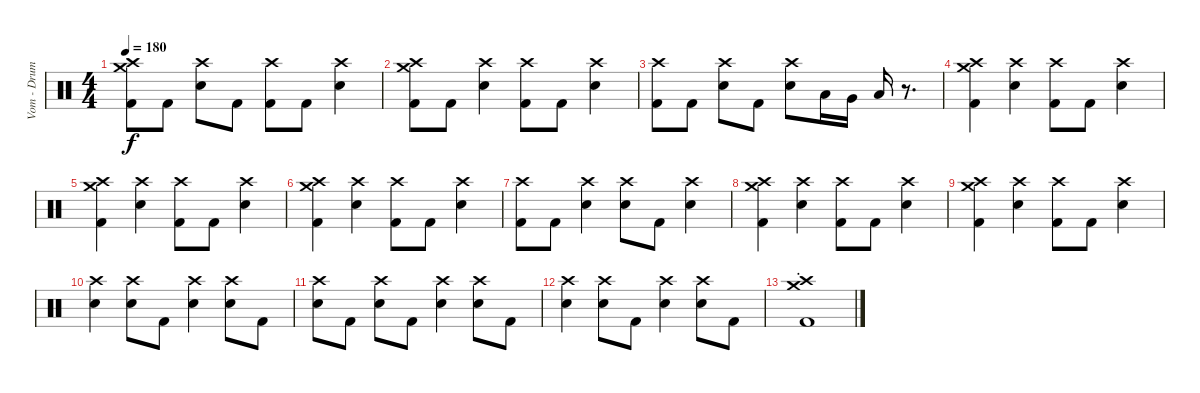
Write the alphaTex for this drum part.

\track ("Vom - Drums" "Vom - Drum") {instrument percussion}
\staff {score}
\articulation defaults
\ts (4 4)
\tempo 180
\clef neutral
\ks c
("Crash high (hit)" "Crash medium (hit)" "Kick (hit) 2").8{dy f} "Kick (hit) 2".8 ("Crash high (hit)" "Electric Snare (hit)").8 "Kick (hit) 2".8 ("Crash high (hit)" "Kick (hit) 2").8 "Kick (hit) 2".8 ("Crash high (hit)" "Electric Snare (hit)").4 |
("Crash high (hit)" "Crash medium (hit)" "Kick (hit) 2").8 "Kick (hit) 2".8 ("Crash high (hit)" "Electric Snare (hit)").4 ("Crash high (hit)" "Kick (hit) 2").8 "Kick (hit) 2".8 ("Crash high (hit)" "Electric Snare (hit)").4 |
("Crash high (hit)" "Kick (hit) 2").8 "Kick (hit) 2".8 ("Crash high (hit)" "Electric Snare (hit)").8 "Kick (hit) 2".8 ("Crash high (hit)" "Electric Snare (hit)").8 "Low Tom (hit)".16 "Very Low Tom (hit)".16 "Low Floor Tom (hit)".16 r.8{d} |
("Crash high (hit)" "Crash medium (hit)" "Kick (hit) 2").4 ("Crash high (hit)" "Electric Snare (hit)").4 ("Crash high (hit)" "Kick (hit) 2").8 "Kick (hit) 2".8 ("Crash high (hit)" "Electric Snare (hit)").4 |
("Crash high (hit)" "Crash medium (hit)" "Kick (hit) 2").4 ("Crash high (hit)" "Electric Snare (hit)").4 ("Crash high (hit)" "Kick (hit) 2").8 "Kick (hit) 2".8 ("Crash high (hit)" "Electric Snare (hit)").4 |
("Crash high (hit)" "Crash medium (hit)" "Kick (hit) 2").4 ("Crash high (hit)" "Electric Snare (hit)").4 ("Crash high (hit)" "Kick (hit) 2").8 "Kick (hit) 2".8 ("Crash high (hit)" "Electric Snare (hit)").4 |
("Crash high (hit)" "Kick (hit) 2").8 "Kick (hit) 2".8 ("Crash high (hit)" "Electric Snare (hit)").4 ("Crash high (hit)" "Electric Snare (hit)").8 "Kick (hit) 2".8 ("Crash high (hit)" "Electric Snare (hit)").4 |
("Crash high (hit)" "Crash medium (hit)" "Kick (hit) 2").4 ("Crash high (hit)" "Electric Snare (hit)").4 ("Crash high (hit)" "Kick (hit) 2").8 "Kick (hit) 2".8 ("Crash high (hit)" "Electric Snare (hit)").4 |
("Crash high (hit)" "Crash medium (hit)" "Kick (hit) 2").4 ("Crash high (hit)" "Electric Snare (hit)").4 ("Crash high (hit)" "Kick (hit) 2").8 "Kick (hit) 2".8 ("Crash high (hit)" "Electric Snare (hit)").4 |
("Crash high (hit)" "Electric Snare (hit)").4 ("Crash high (hit)" "Electric Snare (hit)").8 "Kick (hit) 2".8 ("Crash high (hit)" "Electric Snare (hit)").4 ("Crash high (hit)" "Electric Snare (hit)").8 "Kick (hit) 2".8 |
("Crash high (hit)" "Electric Snare (hit)").8 "Kick (hit) 2".8 ("Crash high (hit)" "Electric Snare (hit)").8 "Kick (hit) 2".8 ("Crash high (hit)" "Electric Snare (hit)").4 ("Crash high (hit)" "Electric Snare (hit)").8 "Kick (hit) 2".8 |
("Crash high (hit)" "Electric Snare (hit)").4 ("Crash high (hit)" "Electric Snare (hit)").8 "Kick (hit) 2".8 ("Crash high (hit)" "Electric Snare (hit)").4 ("Crash high (hit)" "Electric Snare (hit)").8 "Kick (hit) 2".8 |
("Crash high (hit)"{st} "Crash medium (hit)"{st} "Kick (hit) 2"{st}).1
